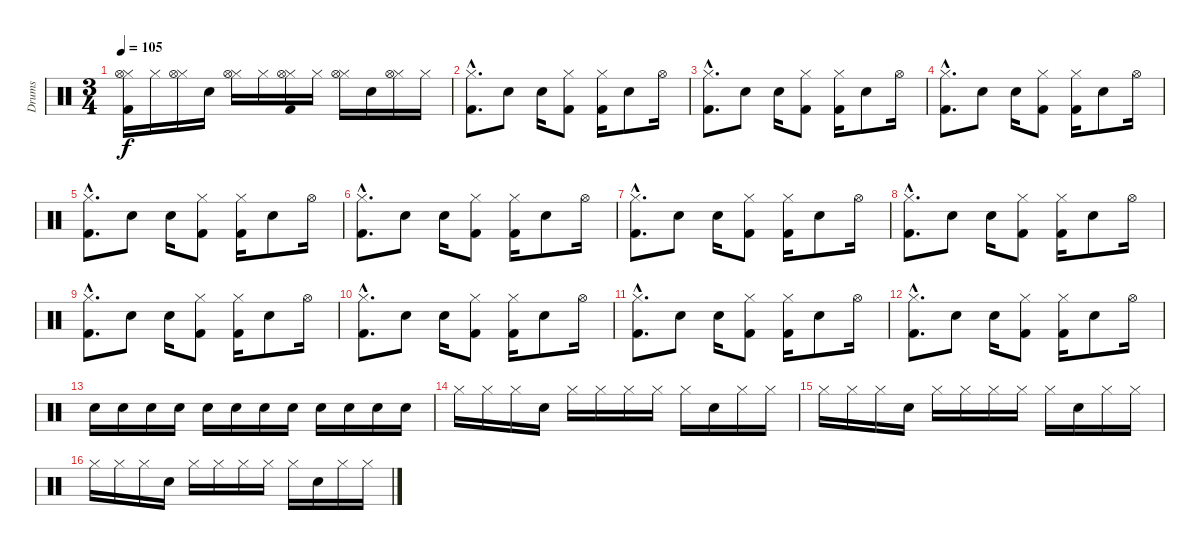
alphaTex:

\track ("Drums" "Drums") {instrument percussion}
\staff {score}
\articulation defaults
\ts (3 4)
\tempo 105
\clef neutral
\ks c
("Hi-Hat (closed)" "Kick (hit) 2" "Hi-Hat (open)").16{dy f} "Hi-Hat (closed)".16 ("Hi-Hat (closed)" "Hi-Hat (open)").16 "Snare (hit) 2".16 ("Hi-Hat (closed)" "Hi-Hat (open)").16 "Hi-Hat (closed)".16 ("Hi-Hat (closed)" "Kick (hit) 2" "Hi-Hat (open)").16 "Hi-Hat (closed)".16 ("Hi-Hat (closed)" "Hi-Hat (open)").16 "Snare (hit) 2".16 ("Hi-Hat (closed)" "Hi-Hat (open)").16 "Hi-Hat (closed)".16 |
("Kick (hit) 2"{hac} "Hi-Hat (closed)"{hac}).8{d} "Snare (hit) 2".8 "Snare (hit) 2".16 ("Kick (hit) 2" "Hi-Hat (closed)").8 ("Kick (hit) 2" "Hi-Hat (closed)").16 "Snare (hit) 2".8 "Hi-Hat (open)".16 |
("Kick (hit) 2"{hac} "Hi-Hat (closed)"{hac}).8{d} "Snare (hit) 2".8 "Snare (hit) 2".16 ("Kick (hit) 2" "Hi-Hat (closed)").8 ("Kick (hit) 2" "Hi-Hat (closed)").16 "Snare (hit) 2".8 "Hi-Hat (open)".16 |
("Kick (hit) 2"{hac} "Hi-Hat (closed)"{hac}).8{d} "Snare (hit) 2".8 "Snare (hit) 2".16 ("Kick (hit) 2" "Hi-Hat (closed)").8 ("Kick (hit) 2" "Hi-Hat (closed)").16 "Snare (hit) 2".8 "Hi-Hat (open)".16 |
("Kick (hit) 2"{hac} "Hi-Hat (closed)"{hac}).8{d} "Snare (hit) 2".8 "Snare (hit) 2".16 ("Kick (hit) 2" "Hi-Hat (closed)").8 ("Kick (hit) 2" "Hi-Hat (closed)").16 "Snare (hit) 2".8 "Hi-Hat (open)".16 |
("Kick (hit) 2"{hac} "Hi-Hat (closed)"{hac}).8{d} "Snare (hit) 2".8 "Snare (hit) 2".16 ("Kick (hit) 2" "Hi-Hat (closed)").8 ("Kick (hit) 2" "Hi-Hat (closed)").16 "Snare (hit) 2".8 "Hi-Hat (open)".16 |
("Kick (hit) 2"{hac} "Hi-Hat (closed)"{hac}).8{d} "Snare (hit) 2".8 "Snare (hit) 2".16 ("Kick (hit) 2" "Hi-Hat (closed)").8 ("Kick (hit) 2" "Hi-Hat (closed)").16 "Snare (hit) 2".8 "Hi-Hat (open)".16 |
("Kick (hit) 2"{hac} "Hi-Hat (closed)"{hac}).8{d} "Snare (hit) 2".8 "Snare (hit) 2".16 ("Kick (hit) 2" "Hi-Hat (closed)").8 ("Kick (hit) 2" "Hi-Hat (closed)").16 "Snare (hit) 2".8 "Hi-Hat (open)".16 |
("Kick (hit) 2"{hac} "Hi-Hat (closed)"{hac}).8{d} "Snare (hit) 2".8 "Snare (hit) 2".16 ("Kick (hit) 2" "Hi-Hat (closed)").8 ("Kick (hit) 2" "Hi-Hat (closed)").16 "Snare (hit) 2".8 "Hi-Hat (open)".16 |
("Kick (hit) 2"{hac} "Hi-Hat (closed)"{hac}).8{d} "Snare (hit) 2".8 "Snare (hit) 2".16 ("Kick (hit) 2" "Hi-Hat (closed)").8 ("Kick (hit) 2" "Hi-Hat (closed)").16 "Snare (hit) 2".8 "Hi-Hat (open)".16 |
("Kick (hit) 2"{hac} "Hi-Hat (closed)"{hac}).8{d} "Snare (hit) 2".8 "Snare (hit) 2".16 ("Kick (hit) 2" "Hi-Hat (closed)").8 ("Kick (hit) 2" "Hi-Hat (closed)").16 "Snare (hit) 2".8 "Hi-Hat (open)".16 |
("Kick (hit) 2"{hac} "Hi-Hat (closed)"{hac}).8{d} "Snare (hit) 2".8 "Snare (hit) 2".16 ("Kick (hit) 2" "Hi-Hat (closed)").8 ("Kick (hit) 2" "Hi-Hat (closed)").16 "Snare (hit) 2".8 "Hi-Hat (open)".16 |
"Snare (hit) 2".16 "Snare (hit) 2".16 "Snare (hit) 2".16 "Snare (hit) 2".16 "Snare (hit) 2".16 "Snare (hit) 2".16 "Snare (hit) 2".16 "Snare (hit) 2".16 "Snare (hit) 2".16 "Snare (hit) 2".16 "Snare (hit) 2".16 "Snare (hit) 2".16 |
"Hi-Hat (closed)".16 "Hi-Hat (closed)".16 "Hi-Hat (closed)".16 "Snare (hit) 2".16 "Hi-Hat (closed)".16 "Hi-Hat (closed)".16 "Hi-Hat (closed)".16 "Hi-Hat (closed)".16 "Hi-Hat (closed)".16 "Snare (hit) 2".16 "Hi-Hat (closed)".16 "Hi-Hat (closed)".16 |
"Hi-Hat (closed)".16 "Hi-Hat (closed)".16 "Hi-Hat (closed)".16 "Snare (hit) 2".16 "Hi-Hat (closed)".16 "Hi-Hat (closed)".16 "Hi-Hat (closed)".16 "Hi-Hat (closed)".16 "Hi-Hat (closed)".16 "Snare (hit) 2".16 "Hi-Hat (closed)".16 "Hi-Hat (closed)".16 |
"Hi-Hat (closed)".16 "Hi-Hat (closed)".16 "Hi-Hat (closed)".16 "Snare (hit) 2".16 "Hi-Hat (closed)".16 "Hi-Hat (closed)".16 "Hi-Hat (closed)".16 "Hi-Hat (closed)".16 "Hi-Hat (closed)".16 "Snare (hit) 2".16 "Hi-Hat (closed)".16 "Hi-Hat (closed)".16
